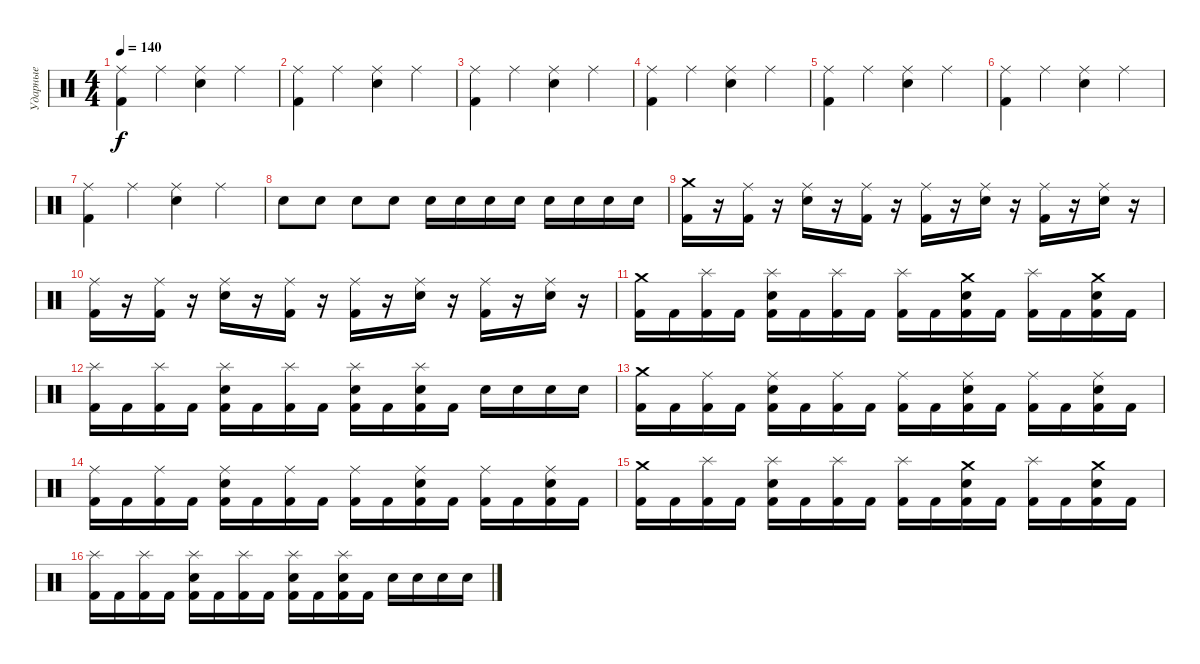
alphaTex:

\track ("Ударные" "Ударные") {instrument percussion}
\staff {score}
\articulation defaults
\ts (4 4)
\tempo 140
\clef neutral
\ks c
("Ride (middle)" "Kick (hit) 2").4{dy f} "Ride (middle)".4 ("Ride (middle)" "Snare (hit) 2").4 "Ride (middle)".4 |
("Ride (middle)" "Kick (hit) 2").4 "Ride (middle)".4 ("Ride (middle)" "Snare (hit) 2").4 "Ride (middle)".4 |
("Ride (middle)" "Kick (hit) 2").4 "Ride (middle)".4 ("Ride (middle)" "Snare (hit) 2").4 "Ride (middle)".4 |
("Ride (middle)" "Kick (hit) 2").4 "Ride (middle)".4 ("Ride (middle)" "Snare (hit) 2").4 "Ride (middle)".4 |
("Ride (middle)" "Kick (hit) 2").4 "Ride (middle)".4 ("Ride (middle)" "Snare (hit) 2").4 "Ride (middle)".4 |
("Ride (middle)" "Kick (hit) 2").4 "Ride (middle)".4 ("Ride (middle)" "Snare (hit) 2").4 "Ride (middle)".4 |
("Ride (middle)" "Kick (hit) 2").4 "Ride (middle)".4 ("Ride (middle)" "Snare (hit) 2").4 "Ride (middle)".4 |
"Snare (hit) 2".8 "Snare (hit) 2".8 "Snare (hit) 2".8 "Snare (hit) 2".8 "Snare (hit) 2".16 "Snare (hit) 2".16 "Snare (hit) 2".16 "Snare (hit) 2".16 "Snare (hit) 2".16 "Snare (hit) 2".16 "Snare (hit) 2".16 "Snare (hit) 2".16 |
("Crash medium (hit)" "Kick (hit) 2").16 r.16 ("Ride (middle)" "Kick (hit) 2").16 r.16 ("Ride (middle)" "Snare (hit) 2").16 r.16 ("Ride (middle)" "Kick (hit) 2").16 r.16 ("Ride (middle)" "Kick (hit) 2").16 r.16 ("Ride (middle)" "Snare (hit) 2").16 r.16 ("Ride (middle)" "Kick (hit) 2").16 r.16 ("Ride (middle)" "Snare (hit) 2").16 r.16 |
("Ride (middle)" "Kick (hit) 2").16 r.16 ("Ride (middle)" "Kick (hit) 2").16 r.16 ("Ride (middle)" "Snare (hit) 2").16 r.16 ("Ride (middle)" "Kick (hit) 2").16 r.16 ("Ride (middle)" "Kick (hit) 2").16 r.16 ("Ride (middle)" "Snare (hit) 2").16 r.16 ("Ride (middle)" "Kick (hit) 2").16 r.16 ("Ride (middle)" "Snare (hit) 2").16 r.16 |
("Crash medium (hit)" "Kick (hit) 2").16 "Kick (hit) 2".16 ("Splash (hit)" "Kick (hit) 2").16 "Kick (hit) 2".16 ("Splash (hit)" "Snare (hit) 2" "Kick (hit) 2").16 "Kick (hit) 2".16 ("Splash (hit)" "Kick (hit) 2").16 "Kick (hit) 2".16 ("Splash (hit)" "Kick (hit) 2").16 "Kick (hit) 2".16 ("Crash medium (hit)" "Snare (hit) 2" "Kick (hit) 2").16 "Kick (hit) 2".16 ("Splash (hit)" "Kick (hit) 2").16 "Kick (hit) 2".16 ("Crash medium (hit)" "Snare (hit) 2" "Kick (hit) 2").16 "Kick (hit) 2".16 |
("Splash (hit)" "Kick (hit) 2").16 "Kick (hit) 2".16 ("Splash (hit)" "Kick (hit) 2").16 "Kick (hit) 2".16 ("Splash (hit)" "Snare (hit) 2" "Kick (hit) 2").16 "Kick (hit) 2".16 ("Splash (hit)" "Kick (hit) 2").16 "Kick (hit) 2".16 ("Splash (hit)" "Snare (hit) 2" "Kick (hit) 2").16 "Kick (hit) 2".16 ("Splash (hit)" "Snare (hit) 2" "Kick (hit) 2").16 "Kick (hit) 2".16 "Snare (hit) 2".16 "Snare (hit) 2".16 "Snare (hit) 2".16 "Snare (hit) 2".16 |
("Crash medium (hit)" "Kick (hit) 2").16 "Kick (hit) 2".16 ("Ride (middle)" "Kick (hit) 2").16 "Kick (hit) 2".16 ("Ride (middle)" "Snare (hit) 2" "Kick (hit) 2").16 "Kick (hit) 2".16 ("Ride (middle)" "Kick (hit) 2").16 "Kick (hit) 2".16 ("Ride (middle)" "Kick (hit) 2").16 "Kick (hit) 2".16 ("Ride (middle)" "Snare (hit) 2" "Kick (hit) 2").16 "Kick (hit) 2".16 ("Ride (middle)" "Kick (hit) 2").16 "Kick (hit) 2".16 ("Ride (middle)" "Snare (hit) 2" "Kick (hit) 2").16 "Kick (hit) 2".16 |
("Ride (middle)" "Kick (hit) 2").16 "Kick (hit) 2".16 ("Ride (middle)" "Kick (hit) 2").16 "Kick (hit) 2".16 ("Ride (middle)" "Snare (hit) 2" "Kick (hit) 2").16 "Kick (hit) 2".16 ("Ride (middle)" "Kick (hit) 2").16 "Kick (hit) 2".16 ("Ride (middle)" "Kick (hit) 2").16 "Kick (hit) 2".16 ("Ride (middle)" "Snare (hit) 2" "Kick (hit) 2").16 "Kick (hit) 2".16 ("Ride (middle)" "Kick (hit) 2").16 "Kick (hit) 2".16 ("Ride (middle)" "Snare (hit) 2" "Kick (hit) 2").16 "Kick (hit) 2".16 |
("Crash medium (hit)" "Kick (hit) 2").16 "Kick (hit) 2".16 ("Splash (hit)" "Kick (hit) 2").16 "Kick (hit) 2".16 ("Splash (hit)" "Snare (hit) 2" "Kick (hit) 2").16 "Kick (hit) 2".16 ("Splash (hit)" "Kick (hit) 2").16 "Kick (hit) 2".16 ("Splash (hit)" "Kick (hit) 2").16 "Kick (hit) 2".16 ("Crash medium (hit)" "Snare (hit) 2" "Kick (hit) 2").16 "Kick (hit) 2".16 ("Splash (hit)" "Kick (hit) 2").16 "Kick (hit) 2".16 ("Crash medium (hit)" "Snare (hit) 2" "Kick (hit) 2").16 "Kick (hit) 2".16 |
("Splash (hit)" "Kick (hit) 2").16 "Kick (hit) 2".16 ("Splash (hit)" "Kick (hit) 2").16 "Kick (hit) 2".16 ("Splash (hit)" "Snare (hit) 2" "Kick (hit) 2").16 "Kick (hit) 2".16 ("Splash (hit)" "Kick (hit) 2").16 "Kick (hit) 2".16 ("Splash (hit)" "Snare (hit) 2" "Kick (hit) 2").16 "Kick (hit) 2".16 ("Splash (hit)" "Snare (hit) 2" "Kick (hit) 2").16 "Kick (hit) 2".16 "Snare (hit) 2".16 "Snare (hit) 2".16 "Snare (hit) 2".16 "Snare (hit) 2".16
